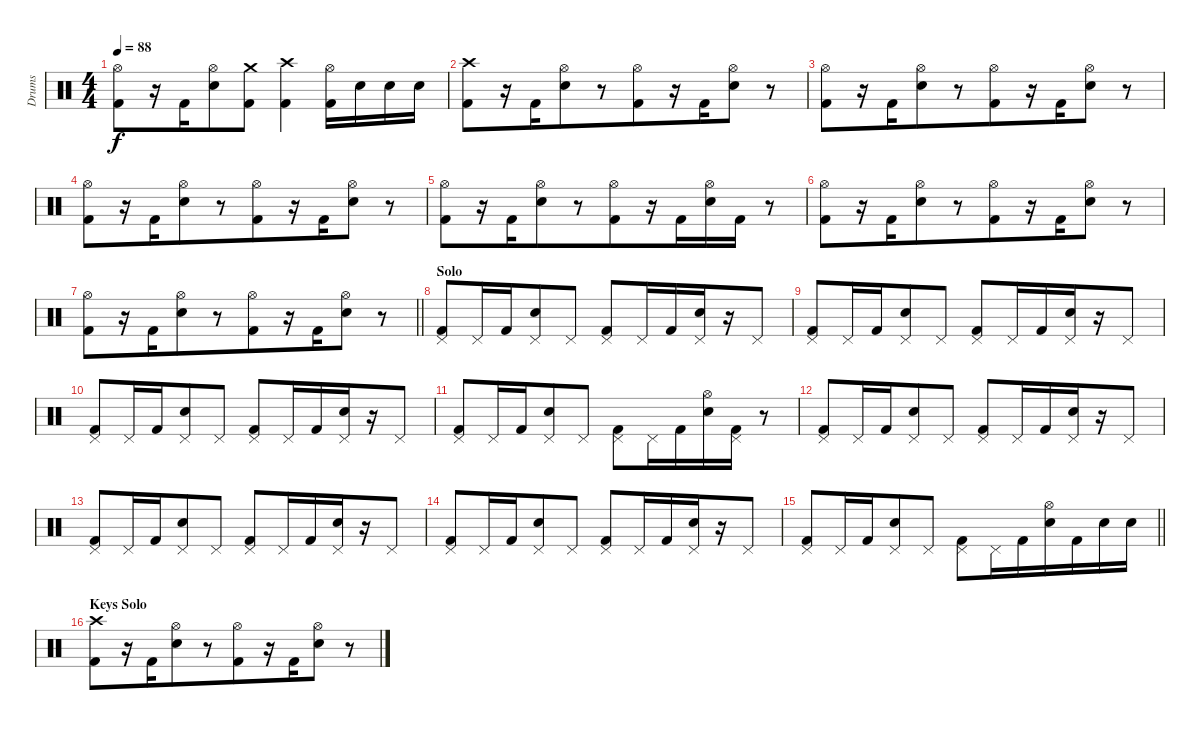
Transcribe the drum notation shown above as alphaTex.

\track ("Drums" "Drums") {instrument percussion}
\staff {score}
\articulation defaults
\ts (4 4)
\tempo 88
\clef neutral
\ks aminor
("Hi-Hat (open)" "Kick (hit) 2").8{dy f} r.16 "Kick (hit) 2".16{beam merge} ("Hi-Hat (open)" "Electric Snare (hit)").8{beam merge} ("Crash medium (hit)" "Kick (hit) 2").8 ("Crash high (hit)" "Kick (hit) 2").4{beam merge} ("Hi-Hat (open)" "Kick (hit) 2").16{beam merge} "Electric Snare (hit)".16 "Electric Snare (hit)".16{beam merge} "Electric Snare (hit)".16 |
("Crash high (hit)" "Kick (hit) 2").8 r.16 "Kick (hit) 2".16{beam merge} ("Hi-Hat (open)" "Electric Snare (hit)").8{beam merge} r.8 ("Hi-Hat (open)" "Kick (hit) 2").8{beam merge} r.16 "Kick (hit) 2".16{beam merge} ("Hi-Hat (open)" "Electric Snare (hit)").8{beam merge} r.8 |
("Hi-Hat (open)" "Kick (hit) 2").8 r.16 "Kick (hit) 2".16{beam merge} ("Hi-Hat (open)" "Electric Snare (hit)").8{beam merge} r.8 ("Hi-Hat (open)" "Kick (hit) 2").8{beam merge} r.16 "Kick (hit) 2".16{beam merge} ("Hi-Hat (open)" "Electric Snare (hit)").8{beam merge} r.8 |
("Hi-Hat (open)" "Kick (hit) 2").8 r.16 "Kick (hit) 2".16{beam merge} ("Hi-Hat (open)" "Electric Snare (hit)").8{beam merge} r.8 ("Hi-Hat (open)" "Kick (hit) 2").8{beam merge} r.16 "Kick (hit) 2".16{beam merge} ("Hi-Hat (open)" "Electric Snare (hit)").8{beam merge} r.8 |
("Hi-Hat (open)" "Kick (hit) 2").8 r.16 "Kick (hit) 2".16{beam merge} ("Hi-Hat (open)" "Electric Snare (hit)").8{beam merge} r.8 ("Hi-Hat (open)" "Kick (hit) 2").8{beam merge} r.16 "Kick (hit) 2".16{beam merge} ("Hi-Hat (open)" "Electric Snare (hit)").16{beam merge} "Kick (hit) 2".16{beam merge} r.8 |
("Hi-Hat (open)" "Kick (hit) 2").8 r.16 "Kick (hit) 2".16{beam merge} ("Hi-Hat (open)" "Electric Snare (hit)").8{beam merge} r.8 ("Hi-Hat (open)" "Kick (hit) 2").8{beam merge} r.16 "Kick (hit) 2".16{beam merge} ("Hi-Hat (open)" "Electric Snare (hit)").8{beam merge} r.8 |
\barLineRight lightlight
("Hi-Hat (open)" "Kick (hit) 2").8 r.16 "Kick (hit) 2".16{beam merge} ("Hi-Hat (open)" "Electric Snare (hit)").8{beam merge} r.8 ("Hi-Hat (open)" "Kick (hit) 2").8{beam merge} r.16 "Kick (hit) 2".16{beam merge} ("Hi-Hat (open)" "Electric Snare (hit)").8{beam merge} r.8 |
\section ("" "Solo")
("Pedal Hi-Hat (hit)" "Kick (hit) 2").8 "Pedal Hi-Hat (hit)".16 "Kick (hit) 2".16{beam merge} ("Pedal Hi-Hat (hit)" "Electric Snare (hit)").8{beam merge} "Pedal Hi-Hat (hit)".8 ("Pedal Hi-Hat (hit)" "Kick (hit) 2").8{beam merge} "Pedal Hi-Hat (hit)".16 "Kick (hit) 2".16{beam merge} ("Pedal Hi-Hat (hit)" "Electric Snare (hit)").16{beam merge} r.16{beam merge} "Pedal Hi-Hat (hit)".8 |
("Pedal Hi-Hat (hit)" "Kick (hit) 2").8 "Pedal Hi-Hat (hit)".16 "Kick (hit) 2".16{beam merge} ("Pedal Hi-Hat (hit)" "Electric Snare (hit)").8{beam merge} "Pedal Hi-Hat (hit)".8 ("Pedal Hi-Hat (hit)" "Kick (hit) 2").8{beam merge} "Pedal Hi-Hat (hit)".16 "Kick (hit) 2".16{beam merge} ("Pedal Hi-Hat (hit)" "Electric Snare (hit)").16{beam merge} r.16{beam merge} "Pedal Hi-Hat (hit)".8 |
("Pedal Hi-Hat (hit)" "Kick (hit) 2").8 "Pedal Hi-Hat (hit)".16 "Kick (hit) 2".16{beam merge} ("Pedal Hi-Hat (hit)" "Electric Snare (hit)").8{beam merge} "Pedal Hi-Hat (hit)".8 ("Pedal Hi-Hat (hit)" "Kick (hit) 2").8{beam merge} "Pedal Hi-Hat (hit)".16 "Kick (hit) 2".16{beam merge} ("Pedal Hi-Hat (hit)" "Electric Snare (hit)").16{beam merge} r.16{beam merge} "Pedal Hi-Hat (hit)".8 |
("Pedal Hi-Hat (hit)" "Kick (hit) 2").8 "Pedal Hi-Hat (hit)".16 "Kick (hit) 2".16{beam merge} ("Pedal Hi-Hat (hit)" "Electric Snare (hit)").8{beam merge} "Pedal Hi-Hat (hit)".8 ("Pedal Hi-Hat (hit)" "Kick (hit) 2").8{beam merge} "Pedal Hi-Hat (hit)".16 "Kick (hit) 2".16{beam merge} ("Hi-Hat (open)" "Electric Snare (hit)").16{beam merge} ("Pedal Hi-Hat (hit)" "Kick (hit) 2").16{beam merge} r.8 |
("Pedal Hi-Hat (hit)" "Kick (hit) 2").8 "Pedal Hi-Hat (hit)".16 "Kick (hit) 2".16{beam merge} ("Pedal Hi-Hat (hit)" "Electric Snare (hit)").8{beam merge} "Pedal Hi-Hat (hit)".8 ("Pedal Hi-Hat (hit)" "Kick (hit) 2").8{beam merge} "Pedal Hi-Hat (hit)".16 "Kick (hit) 2".16{beam merge} ("Pedal Hi-Hat (hit)" "Electric Snare (hit)").16{beam merge} r.16{beam merge} "Pedal Hi-Hat (hit)".8 |
("Pedal Hi-Hat (hit)" "Kick (hit) 2").8 "Pedal Hi-Hat (hit)".16 "Kick (hit) 2".16{beam merge} ("Pedal Hi-Hat (hit)" "Electric Snare (hit)").8{beam merge} "Pedal Hi-Hat (hit)".8 ("Pedal Hi-Hat (hit)" "Kick (hit) 2").8{beam merge} "Pedal Hi-Hat (hit)".16 "Kick (hit) 2".16{beam merge} ("Pedal Hi-Hat (hit)" "Electric Snare (hit)").16{beam merge} r.16{beam merge} "Pedal Hi-Hat (hit)".8 |
("Pedal Hi-Hat (hit)" "Kick (hit) 2").8 "Pedal Hi-Hat (hit)".16 "Kick (hit) 2".16{beam merge} ("Pedal Hi-Hat (hit)" "Electric Snare (hit)").8{beam merge} "Pedal Hi-Hat (hit)".8 ("Pedal Hi-Hat (hit)" "Kick (hit) 2").8{beam merge} "Pedal Hi-Hat (hit)".16 "Kick (hit) 2".16{beam merge} ("Pedal Hi-Hat (hit)" "Electric Snare (hit)").16{beam merge} r.16{beam merge} "Pedal Hi-Hat (hit)".8 |
\barLineRight lightlight
("Pedal Hi-Hat (hit)" "Kick (hit) 2").8 "Pedal Hi-Hat (hit)".16 "Kick (hit) 2".16{beam merge} ("Pedal Hi-Hat (hit)" "Electric Snare (hit)").8{beam merge} "Pedal Hi-Hat (hit)".8 ("Pedal Hi-Hat (hit)" "Kick (hit) 2").8{beam merge} "Pedal Hi-Hat (hit)".16 "Kick (hit) 2".16{beam merge} ("Hi-Hat (open)" "Electric Snare (hit)").16{beam merge} "Kick (hit) 2".16{beam merge} "Electric Snare (hit)".16 "Electric Snare (hit)".16 |
\section ("" "Keys Solo")
("Crash high (hit)" "Kick (hit) 2").8 r.16 "Kick (hit) 2".16{beam merge} ("Hi-Hat (open)" "Electric Snare (hit)").8{beam merge} r.8 ("Hi-Hat (open)" "Kick (hit) 2").8{beam merge} r.16 "Kick (hit) 2".16{beam merge} ("Hi-Hat (open)" "Electric Snare (hit)").8{beam merge} r.8
